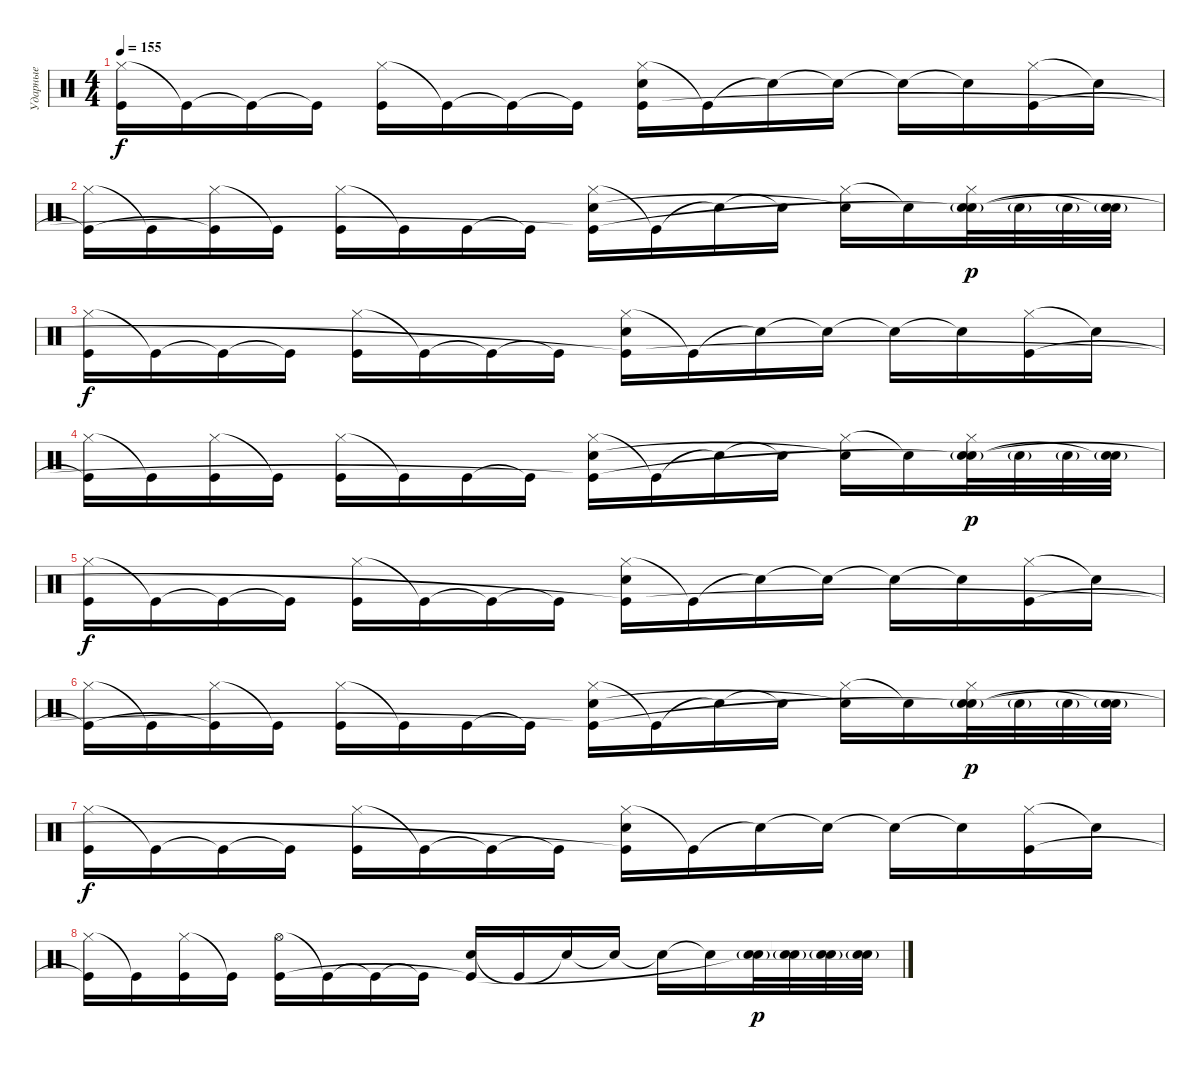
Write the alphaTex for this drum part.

\track ("Ударные" "Ударные") {instrument percussion}
\staff {score}
\articulation defaults
\ts (4 4)
\tempo 155
\clef neutral
\ks c
("Hi-Hat (closed)" "Kick (hit)").16{dy f} "Kick (hit)"{t}.16 "Kick (hit)"{t}.16 "Kick (hit)"{t}.16 ("Hi-Hat (closed)" "Kick (hit)").16 "Kick (hit)"{t}.16 "Kick (hit)"{t}.16 "Kick (hit)"{t}.16 ("Hi-Hat (closed)" "Electric Snare (hit)" "Kick (hit)"{t}).16 "Kick (hit)"{t}.16 "Snare (hit)"{t}.16 "Snare (hit)"{t}.16 "Snare (hit)"{t}.16 "Snare (hit)"{t}.16 ("Hi-Hat (closed)" "Kick (hit)").16 "Snare (hit)"{t}.16 |
("Hi-Hat (closed)" "Kick (hit)"{t}).16 "Kick (hit)"{t}.16 ("Hi-Hat (closed)" "Kick (hit)"{t}).16 "Kick (hit)"{t}.16 ("Hi-Hat (closed)" "Kick (hit)").16 "Kick (hit)"{t}.16 "Kick (hit)".16 "Kick (hit)"{t}.16 ("Hi-Hat (closed)" "Electric Snare (hit)" "Kick (hit)"{t}).16 "Kick (hit)"{t}.16 "Snare (hit)"{t}.16 "Snare (hit)"{t}.16 ("Hi-Hat (closed)" "Snare (hit)"{t}).16 "Snare (hit)"{t}.16 ("Hi-Hat (closed)" "Electric Snare (hit)"{g} "Snare (hit)"{t}).32{dy p} "Electric Snare (hit)"{g}.32 "Electric Snare (hit)"{g}.32 ("Electric Snare (hit)"{g} "Snare (hit)"{t}).32 |
("Hi-Hat (closed)" "Kick (hit)").16{dy f} "Kick (hit)"{t}.16 "Kick (hit)"{t}.16 "Kick (hit)"{t}.16 ("Hi-Hat (closed)" "Kick (hit)").16 "Kick (hit)"{t}.16 "Kick (hit)"{t}.16 "Kick (hit)"{t}.16 ("Hi-Hat (closed)" "Electric Snare (hit)" "Kick (hit)"{t}).16 "Kick (hit)"{t}.16 "Snare (hit)"{t}.16 "Snare (hit)"{t}.16 "Snare (hit)"{t}.16 "Snare (hit)"{t}.16 ("Hi-Hat (closed)" "Kick (hit)").16 "Snare (hit)"{t}.16 |
("Hi-Hat (closed)" "Kick (hit)"{t}).16 "Kick (hit)"{t}.16 ("Hi-Hat (closed)" "Kick (hit)").16 "Kick (hit)"{t}.16 ("Hi-Hat (closed)" "Kick (hit)").16 "Kick (hit)"{t}.16 "Kick (hit)".16 "Kick (hit)"{t}.16 ("Hi-Hat (closed)" "Electric Snare (hit)" "Kick (hit)"{t}).16 "Kick (hit)"{t}.16 "Snare (hit)"{t}.16 "Snare (hit)"{t}.16 ("Hi-Hat (closed)" "Snare (hit)"{t}).16 "Snare (hit)"{t}.16 ("Hi-Hat (closed)" "Electric Snare (hit)"{g} "Snare (hit)"{t}).32{dy p} "Electric Snare (hit)"{g}.32 "Electric Snare (hit)"{g}.32 ("Electric Snare (hit)"{g} "Snare (hit)"{t}).32 |
("Hi-Hat (closed)" "Kick (hit)").16{dy f} "Kick (hit)"{t}.16 "Kick (hit)"{t}.16 "Kick (hit)"{t}.16 ("Hi-Hat (closed)" "Kick (hit)").16 "Kick (hit)"{t}.16 "Kick (hit)"{t}.16 "Kick (hit)"{t}.16 ("Hi-Hat (closed)" "Electric Snare (hit)" "Kick (hit)"{t}).16 "Kick (hit)"{t}.16 "Snare (hit)"{t}.16 "Snare (hit)"{t}.16 "Snare (hit)"{t}.16 "Snare (hit)"{t}.16 ("Hi-Hat (closed)" "Kick (hit)").16 "Snare (hit)"{t}.16 |
("Hi-Hat (closed)" "Kick (hit)"{t}).16 "Kick (hit)"{t}.16 ("Hi-Hat (closed)" "Kick (hit)"{t}).16 "Kick (hit)"{t}.16 ("Hi-Hat (closed)" "Kick (hit)").16 "Kick (hit)"{t}.16 "Kick (hit)".16 "Kick (hit)"{t}.16 ("Hi-Hat (closed)" "Electric Snare (hit)" "Kick (hit)"{t}).16 "Kick (hit)"{t}.16 "Snare (hit)"{t}.16 "Snare (hit)"{t}.16 ("Hi-Hat (closed)" "Snare (hit)"{t}).16 "Snare (hit)"{t}.16 ("Hi-Hat (closed)" "Electric Snare (hit)"{g} "Snare (hit)"{t}).32{dy p} "Electric Snare (hit)"{g}.32 "Electric Snare (hit)"{g}.32 ("Electric Snare (hit)"{g} "Snare (hit)"{t}).32 |
("Hi-Hat (closed)" "Kick (hit)").16{dy f} "Kick (hit)"{t}.16 "Kick (hit)"{t}.16 "Kick (hit)"{t}.16 ("Hi-Hat (closed)" "Kick (hit)").16 "Kick (hit)"{t}.16 "Kick (hit)"{t}.16 "Kick (hit)"{t}.16 ("Hi-Hat (closed)" "Electric Snare (hit)" "Kick (hit)"{t}).16 "Kick (hit)"{t}.16 "Snare (hit)"{t}.16 "Snare (hit)"{t}.16 "Snare (hit)"{t}.16 "Snare (hit)"{t}.16 ("Hi-Hat (closed)" "Kick (hit)").16 "Snare (hit)"{t}.16 |
("Hi-Hat (closed)" "Kick (hit)"{t}).16 "Kick (hit)"{t}.16 ("Hi-Hat (closed)" "Kick (hit)").16 "Kick (hit)"{t}.16 ("Hi-Hat (open)" "Kick (hit)").16 "Kick (hit)"{t}.16 "Kick (hit)"{t}.16 "Kick (hit)"{t}.16 ("Electric Snare (hit)" "Kick (hit)"{t}).16 "Kick (hit)"{t}.16 "Snare (hit)"{t}.16 "Snare (hit)"{t}.16 "Snare (hit)"{t}.16 "Snare (hit)"{t}.16 ("Electric Snare (hit)"{g} "Snare (hit)"{t}).32{dy p} ("Electric Snare (hit)"{g} "Snare (hit)"{t}).32 ("Electric Snare (hit)"{g} "Snare (hit)"{t}).32 ("Electric Snare (hit)"{g} "Snare (hit)"{t}).32
